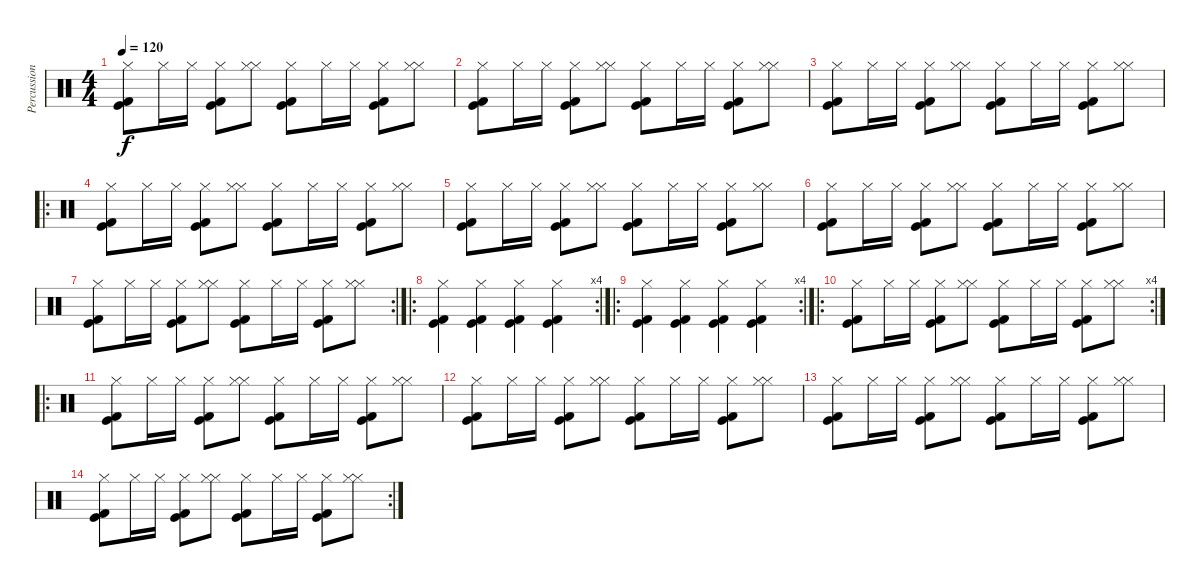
\track ("Percussions" "Percussion") {instrument percussion}
\staff {score}
\articulation defaults
\ts (4 4)
\tempo 120
\clef neutral
\ks c
("Kick (hit) 2" "Kick (hit)" "Hi-Hat (closed)").8{dy f} "Hi-Hat (closed)".16 "Hi-Hat (closed)".16 ("Kick (hit) 2" "Kick (hit)" "Hi-Hat (closed)").8 ("Hi-Hat (closed)" "Hi-Hat (closed)").8 ("Kick (hit) 2" "Kick (hit)" "Hi-Hat (closed)").8 "Hi-Hat (closed)".16 "Hi-Hat (closed)".16 ("Kick (hit) 2" "Kick (hit)" "Hi-Hat (closed)").8 ("Hi-Hat (closed)" "Hi-Hat (closed)").8 |
("Kick (hit) 2" "Kick (hit)" "Hi-Hat (closed)").8 "Hi-Hat (closed)".16 "Hi-Hat (closed)".16 ("Kick (hit) 2" "Kick (hit)" "Hi-Hat (closed)").8 ("Hi-Hat (closed)" "Hi-Hat (closed)").8 ("Kick (hit) 2" "Kick (hit)" "Hi-Hat (closed)").8 "Hi-Hat (closed)".16 "Hi-Hat (closed)".16 ("Kick (hit) 2" "Kick (hit)" "Hi-Hat (closed)").8 ("Hi-Hat (closed)" "Hi-Hat (closed)").8 |
("Kick (hit) 2" "Kick (hit)" "Hi-Hat (closed)").8 "Hi-Hat (closed)".16 "Hi-Hat (closed)".16 ("Kick (hit) 2" "Kick (hit)" "Hi-Hat (closed)").8 ("Hi-Hat (closed)" "Hi-Hat (closed)").8 ("Kick (hit) 2" "Kick (hit)" "Hi-Hat (closed)").8 "Hi-Hat (closed)".16 "Hi-Hat (closed)".16 ("Kick (hit) 2" "Kick (hit)" "Hi-Hat (closed)").8 ("Hi-Hat (closed)" "Hi-Hat (closed)").8 |
\ro
("Kick (hit) 2" "Kick (hit)" "Hi-Hat (closed)").8 "Hi-Hat (closed)".16 "Hi-Hat (closed)".16 ("Kick (hit) 2" "Kick (hit)" "Hi-Hat (closed)").8 ("Hi-Hat (closed)" "Hi-Hat (closed)").8 ("Kick (hit) 2" "Kick (hit)" "Hi-Hat (closed)").8 "Hi-Hat (closed)".16 "Hi-Hat (closed)".16 ("Kick (hit) 2" "Kick (hit)" "Hi-Hat (closed)").8 ("Hi-Hat (closed)" "Hi-Hat (closed)").8 |
("Kick (hit) 2" "Kick (hit)" "Hi-Hat (closed)").8 "Hi-Hat (closed)".16 "Hi-Hat (closed)".16 ("Kick (hit) 2" "Kick (hit)" "Hi-Hat (closed)").8 ("Hi-Hat (closed)" "Hi-Hat (closed)").8 ("Kick (hit) 2" "Kick (hit)" "Hi-Hat (closed)").8 "Hi-Hat (closed)".16 "Hi-Hat (closed)".16 ("Kick (hit) 2" "Kick (hit)" "Hi-Hat (closed)").8 ("Hi-Hat (closed)" "Hi-Hat (closed)").8 |
("Kick (hit) 2" "Kick (hit)" "Hi-Hat (closed)").8 "Hi-Hat (closed)".16 "Hi-Hat (closed)".16 ("Kick (hit) 2" "Kick (hit)" "Hi-Hat (closed)").8 ("Hi-Hat (closed)" "Hi-Hat (closed)").8 ("Kick (hit) 2" "Kick (hit)" "Hi-Hat (closed)").8 "Hi-Hat (closed)".16 "Hi-Hat (closed)".16 ("Kick (hit) 2" "Kick (hit)" "Hi-Hat (closed)").8 ("Hi-Hat (closed)" "Hi-Hat (closed)").8 |
\rc 2
("Kick (hit) 2" "Kick (hit)" "Hi-Hat (closed)").8 "Hi-Hat (closed)".16 "Hi-Hat (closed)".16 ("Kick (hit) 2" "Kick (hit)" "Hi-Hat (closed)").8 ("Hi-Hat (closed)" "Hi-Hat (closed)").8 ("Kick (hit) 2" "Kick (hit)" "Hi-Hat (closed)").8 "Hi-Hat (closed)".16 "Hi-Hat (closed)".16 ("Kick (hit) 2" "Kick (hit)" "Hi-Hat (closed)").8 ("Hi-Hat (closed)" "Hi-Hat (closed)").8 |
\ro
\rc 4
("Kick (hit) 2" "Kick (hit)" "Hi-Hat (closed)").4 ("Kick (hit) 2" "Kick (hit)" "Hi-Hat (closed)").4 ("Kick (hit) 2" "Kick (hit)" "Hi-Hat (closed)").4 ("Kick (hit) 2" "Kick (hit)" "Hi-Hat (closed)").4 |
\ro
\rc 4
("Kick (hit) 2" "Kick (hit)" "Hi-Hat (closed)").4 ("Kick (hit) 2" "Kick (hit)" "Hi-Hat (closed)").4 ("Kick (hit) 2" "Kick (hit)" "Hi-Hat (closed)").4 ("Kick (hit) 2" "Kick (hit)" "Hi-Hat (closed)").4 |
\ro
\rc 4
("Kick (hit) 2" "Kick (hit)" "Hi-Hat (closed)").8 "Hi-Hat (closed)".16 "Hi-Hat (closed)".16 ("Kick (hit) 2" "Kick (hit)" "Hi-Hat (closed)").8 ("Hi-Hat (closed)" "Hi-Hat (closed)").8 ("Kick (hit) 2" "Kick (hit)" "Hi-Hat (closed)").8 "Hi-Hat (closed)".16 "Hi-Hat (closed)".16 ("Kick (hit) 2" "Kick (hit)" "Hi-Hat (closed)").8 ("Hi-Hat (closed)" "Hi-Hat (closed)").8 |
\ro
("Kick (hit) 2" "Kick (hit)" "Hi-Hat (closed)").8 "Hi-Hat (closed)".16 "Hi-Hat (closed)".16 ("Kick (hit) 2" "Kick (hit)" "Hi-Hat (closed)").8 ("Hi-Hat (closed)" "Hi-Hat (closed)").8 ("Kick (hit) 2" "Kick (hit)" "Hi-Hat (closed)").8 "Hi-Hat (closed)".16 "Hi-Hat (closed)".16 ("Kick (hit) 2" "Kick (hit)" "Hi-Hat (closed)").8 ("Hi-Hat (closed)" "Hi-Hat (closed)").8 |
("Kick (hit) 2" "Kick (hit)" "Hi-Hat (closed)").8 "Hi-Hat (closed)".16 "Hi-Hat (closed)".16 ("Kick (hit) 2" "Kick (hit)" "Hi-Hat (closed)").8 ("Hi-Hat (closed)" "Hi-Hat (closed)").8 ("Kick (hit) 2" "Kick (hit)" "Hi-Hat (closed)").8 "Hi-Hat (closed)".16 "Hi-Hat (closed)".16 ("Kick (hit) 2" "Kick (hit)" "Hi-Hat (closed)").8 ("Hi-Hat (closed)" "Hi-Hat (closed)").8 |
("Kick (hit) 2" "Kick (hit)" "Hi-Hat (closed)").8 "Hi-Hat (closed)".16 "Hi-Hat (closed)".16 ("Kick (hit) 2" "Kick (hit)" "Hi-Hat (closed)").8 ("Hi-Hat (closed)" "Hi-Hat (closed)").8 ("Kick (hit) 2" "Kick (hit)" "Hi-Hat (closed)").8 "Hi-Hat (closed)".16 "Hi-Hat (closed)".16 ("Kick (hit) 2" "Kick (hit)" "Hi-Hat (closed)").8 ("Hi-Hat (closed)" "Hi-Hat (closed)").8 |
\rc 2
("Kick (hit) 2" "Kick (hit)" "Hi-Hat (closed)").8 "Hi-Hat (closed)".16 "Hi-Hat (closed)".16 ("Kick (hit) 2" "Kick (hit)" "Hi-Hat (closed)").8 ("Hi-Hat (closed)" "Hi-Hat (closed)").8 ("Kick (hit) 2" "Kick (hit)" "Hi-Hat (closed)").8 "Hi-Hat (closed)".16 "Hi-Hat (closed)".16 ("Kick (hit) 2" "Kick (hit)" "Hi-Hat (closed)").8 ("Hi-Hat (closed)" "Hi-Hat (closed)").8
